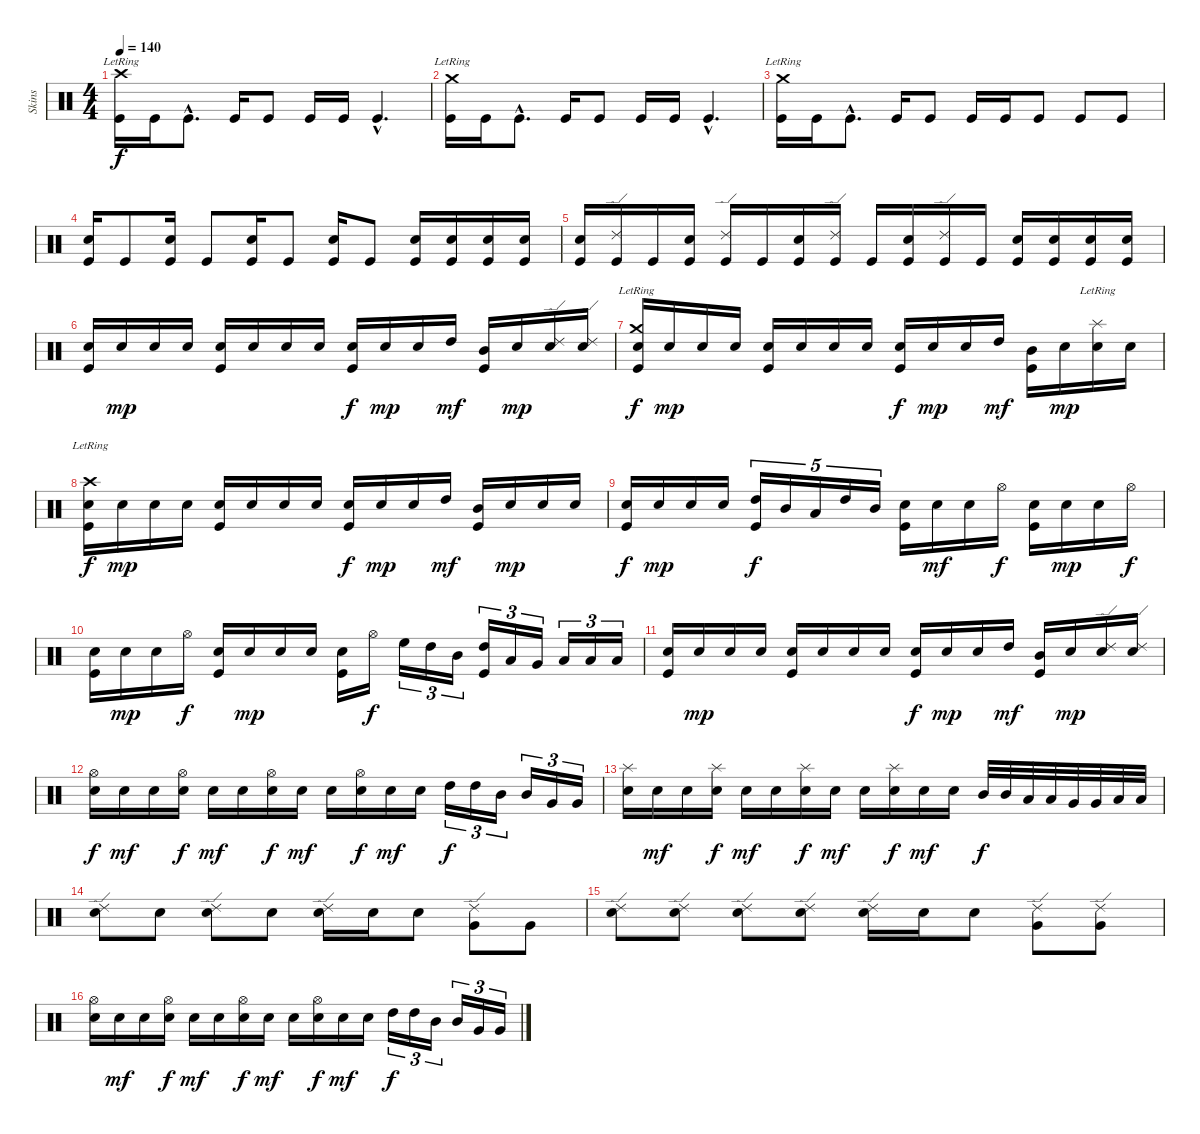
\track ("Skins" "Skins") {instrument percussion}
\staff {score}
\articulation defaults
\ts (4 4)
\tempo 140
\clef neutral
\ks c
("Crash high (hit)"{lr} "Kick (hit)").16{dy f} "Kick (hit)".16 "Kick (hit)"{hac}.8{d} "Kick (hit)".16 "Kick (hit)".8 "Kick (hit)".16 "Kick (hit)".16 "Kick (hit)"{hac}.4{d} |
("Crash medium (hit)"{lr} "Kick (hit)").16 "Kick (hit)".16 "Kick (hit)"{hac}.8{d} "Kick (hit)".16 "Kick (hit)".8 "Kick (hit)".16 "Kick (hit)".16 "Kick (hit)"{hac}.4{d} |
("Crash medium (hit)"{lr} "Kick (hit)").16 "Kick (hit)".16 "Kick (hit)"{hac}.8{d} "Kick (hit)".16 "Kick (hit)".8 "Kick (hit)".16 "Kick (hit)".16 "Kick (hit)".8 "Kick (hit)".8 "Kick (hit)".8 |
("Snare (hit) 2" "Kick (hit)").16 "Kick (hit)".8 ("Snare (hit) 2" "Kick (hit)").16 "Kick (hit)".8 ("Snare (hit) 2" "Kick (hit)").16 "Kick (hit)".8 ("Snare (hit) 2" "Kick (hit)").16 "Kick (hit)".8 ("Snare (hit) 2" "Kick (hit)").16 ("Snare (hit) 2" "Kick (hit)").16 ("Electric Snare (hit)" "Kick (hit)").16 ("Electric Snare (hit)" "Kick (hit)").16 |
("Snare (hit) 2" "Kick (hit)").16 ("Ride (edge) 2" "Kick (hit)").16 "Kick (hit)".16 ("Snare (hit) 2" "Kick (hit)").16 ("Ride (edge) 2" "Kick (hit)").16 "Kick (hit)".16 ("Snare (hit) 2" "Kick (hit)").16 ("Ride (edge) 2" "Kick (hit)").16 "Kick (hit)".16 ("Snare (hit) 2" "Kick (hit)").16 ("Ride (edge) 2" "Kick (hit)").16 "Kick (hit)".16 ("Snare (hit) 2" "Kick (hit)").16 ("Snare (hit) 2" "Kick (hit)").16 ("Electric Snare (hit)" "Kick (hit)").16 ("Electric Snare (hit)" "Kick (hit)").16 |
("Electric Snare (hit)" "Kick (hit)").16 "Snare (hit) 2".16{dy mp} "Snare (hit) 2".16 "Snare (hit) 2".16 ("Snare (hit) 2" "Kick (hit)").16 "Snare (hit) 2".16 "Snare (hit) 2".16 "Snare (hit) 2".16 ("Electric Snare (hit)" "Kick (hit)").16{dy f} "Snare (hit) 2".16{dy mp} "Snare (hit) 2".16 "High Tom (hit)".16{dy mf} ("Mid Tom (hit)" "Kick (hit)").16 "Snare (hit) 2".16{dy mp} ("Ride (edge) 2" "Snare (hit) 2").16 ("Ride (edge) 2" "Snare (hit) 2").16 |
("Crash medium (hit)"{lr} "Electric Snare (hit)" "Kick (hit)").16{dy f} "Snare (hit) 2".16{dy mp} "Snare (hit) 2".16 "Snare (hit) 2".16 ("Snare (hit) 2" "Kick (hit)").16 "Snare (hit) 2".16 "Snare (hit) 2".16 "Snare (hit) 2".16 ("Electric Snare (hit)" "Kick (hit)").16{dy f} "Snare (hit) 2".16{dy mp} "Snare (hit) 2".16 "High Tom (hit)".16{dy mf} ("Mid Tom (hit)" "Kick (hit)").16 "Snare (hit) 2".16{dy mp} ("Splash (hit)"{lr} "Snare (hit) 2").16 "Snare (hit) 2".16 |
("Crash high (hit)"{lr} "Electric Snare (hit)" "Kick (hit)").16{dy f} "Snare (hit) 2".16{dy mp} "Snare (hit) 2".16 "Snare (hit) 2".16 ("Snare (hit) 2" "Kick (hit)").16 "Snare (hit) 2".16 "Snare (hit) 2".16 "Snare (hit) 2".16 ("Electric Snare (hit)" "Kick (hit)").16{dy f} "Snare (hit) 2".16{dy mp} "Snare (hit) 2".16 "High Tom (hit)".16{dy mf} ("Mid Tom (hit)" "Kick (hit)").16 "Snare (hit) 2".16{dy mp} "Snare (hit) 2".16 "Snare (hit) 2".16 |
("Electric Snare (hit)" "Kick (hit)").16{dy f} "Snare (hit) 2".16{dy mp} "Snare (hit) 2".16 "Snare (hit) 2".16 ("High Tom (hit)" "Kick (hit)").16{tu (5 4) dy f} "Mid Tom (hit)".16{tu (5 4)} "Low Tom (hit)".16{tu (5 4)} "High Tom (hit)".16{tu (5 4)} "Mid Tom (hit)".16{tu (5 4)} ("Electric Snare (hit)" "Kick (hit)").16 "Snare (hit) 2".16{dy mf} "Snare (hit) 2".16 "Hi-Hat (open)".16{dy f} ("Electric Snare (hit)" "Kick (hit)").16 "Snare (hit) 2".16{dy mp} "Snare (hit) 2".16 "Hi-Hat (open)".16{dy f} |
("Electric Snare (hit)" "Kick (hit)").16 "Snare (hit) 2".16{dy mp} "Snare (hit) 2".16 "Hi-Hat (open)".16{dy f} ("Electric Snare (hit)" "Kick (hit)").16 "Snare (hit) 2".16{dy mp} "Snare (hit) 2".16 "Snare (hit) 2".16 ("Snare (hit) 2" "Kick (hit)").16 "Hi-Hat (open)".16{dy f} "High Floor Tom (hit)".16{tu (3 2)} "High Tom (hit)".16{tu (3 2)} "Mid Tom (hit)".16{tu (3 2)} ("High Tom (hit)" "Kick (hit)").16{tu (3 2)} "Low Tom (hit)".16{tu (3 2)} "Very Low Tom (hit)".16{tu (3 2)} "Low Tom (hit)".16{tu (3 2)} "Low Floor Tom (hit)".16{tu (3 2)} "Low Floor Tom (hit)".16{tu (3 2)} |
("Electric Snare (hit)" "Kick (hit)").16 "Snare (hit) 2".16{dy mp} "Snare (hit) 2".16 "Snare (hit) 2".16 ("Snare (hit) 2" "Kick (hit)").16 "Snare (hit) 2".16 "Snare (hit) 2".16 "Snare (hit) 2".16 ("Electric Snare (hit)" "Kick (hit)").16{dy f} "Snare (hit) 2".16{dy mp} "Snare (hit) 2".16 "High Tom (hit)".16{dy mf} ("Mid Tom (hit)" "Kick (hit)").16 "Snare (hit) 2".16{dy mp} ("Ride (edge) 2" "Snare (hit) 2").16 ("Ride (edge) 2" "Snare (hit) 2").16 |
("Hi-Hat (open)" "Snare (hit) 2").16{dy f} "Electric Snare (hit)".16{dy mf} "Electric Snare (hit)".16 ("Hi-Hat (open)" "Snare (hit) 2").16{dy f} "Electric Snare (hit)".16{dy mf} "Electric Snare (hit)".16 ("Hi-Hat (open)" "Snare (hit) 2").16{dy f} "Electric Snare (hit)".16{dy mf} "Electric Snare (hit)".16 ("Hi-Hat (open)" "Snare (hit) 2").16{dy f} "Electric Snare (hit)".16{dy mf} "Electric Snare (hit)".16 "High Tom (hit)".16{tu (3 2) dy f} "High Tom (hit)".16{tu (3 2)} "Mid Tom (hit)".16{tu (3 2)} "Mid Tom (hit)".16{tu (3 2)} "Very Low Tom (hit)".16{tu (3 2)} "Very Low Tom (hit)".16{tu (3 2)} |
("Splash (hit)" "Snare (hit) 2").16 "Electric Snare (hit)".16{dy mf} "Electric Snare (hit)".16 ("Splash (hit)" "Snare (hit) 2").16{dy f} "Electric Snare (hit)".16{dy mf} "Electric Snare (hit)".16 ("Splash (hit)" "Snare (hit) 2").16{dy f} "Electric Snare (hit)".16{dy mf} "Electric Snare (hit)".16 ("Splash (hit)" "Snare (hit) 2").16{dy f} "Electric Snare (hit)".16{dy mf} "Electric Snare (hit)".16 "Mid Tom (hit)".32{dy f} "Mid Tom (hit)".32 "Low Tom (hit)".32 "Low Tom (hit)".32 "Very Low Tom (hit)".32 "Very Low Tom (hit)".32 "Low Floor Tom (hit)".32 "Low Floor Tom (hit)".32 |
("Electric Snare (hit)" "Ride (edge) 2").8 "Snare (hit) 2".8 ("Snare (hit) 2" "Ride (edge) 2").8 "Snare (hit) 2".8 ("Electric Snare (hit)" "Ride (edge) 2").16 "Electric Snare (hit)".16 "Electric Snare (hit)".8 ("Very Low Tom (hit)" "Ride (edge) 2").8 "Very Low Tom (hit)".8 |
("Electric Snare (hit)" "Ride (edge) 2").8 ("Snare (hit) 2" "Ride (edge) 2").8 ("Snare (hit) 2" "Ride (edge) 2").8 ("Snare (hit) 2" "Ride (edge) 2").8 ("Electric Snare (hit)" "Ride (edge) 2").16 "Electric Snare (hit)".16 "Electric Snare (hit)".8 ("Very Low Tom (hit)" "Ride (edge) 2").8 ("Very Low Tom (hit)" "Ride (edge) 2").8 |
("Hi-Hat (open)" "Snare (hit) 2").16 "Electric Snare (hit)".16{dy mf} "Electric Snare (hit)".16 ("Hi-Hat (open)" "Snare (hit) 2").16{dy f} "Electric Snare (hit)".16{dy mf} "Electric Snare (hit)".16 ("Hi-Hat (open)" "Snare (hit) 2").16{dy f} "Electric Snare (hit)".16{dy mf} "Electric Snare (hit)".16 ("Hi-Hat (open)" "Snare (hit) 2").16{dy f} "Electric Snare (hit)".16{dy mf} "Electric Snare (hit)".16 "High Tom (hit)".16{tu (3 2) dy f} "High Tom (hit)".16{tu (3 2)} "Mid Tom (hit)".16{tu (3 2)} "Mid Tom (hit)".16{tu (3 2)} "Very Low Tom (hit)".16{tu (3 2)} "Very Low Tom (hit)".16{tu (3 2)}
